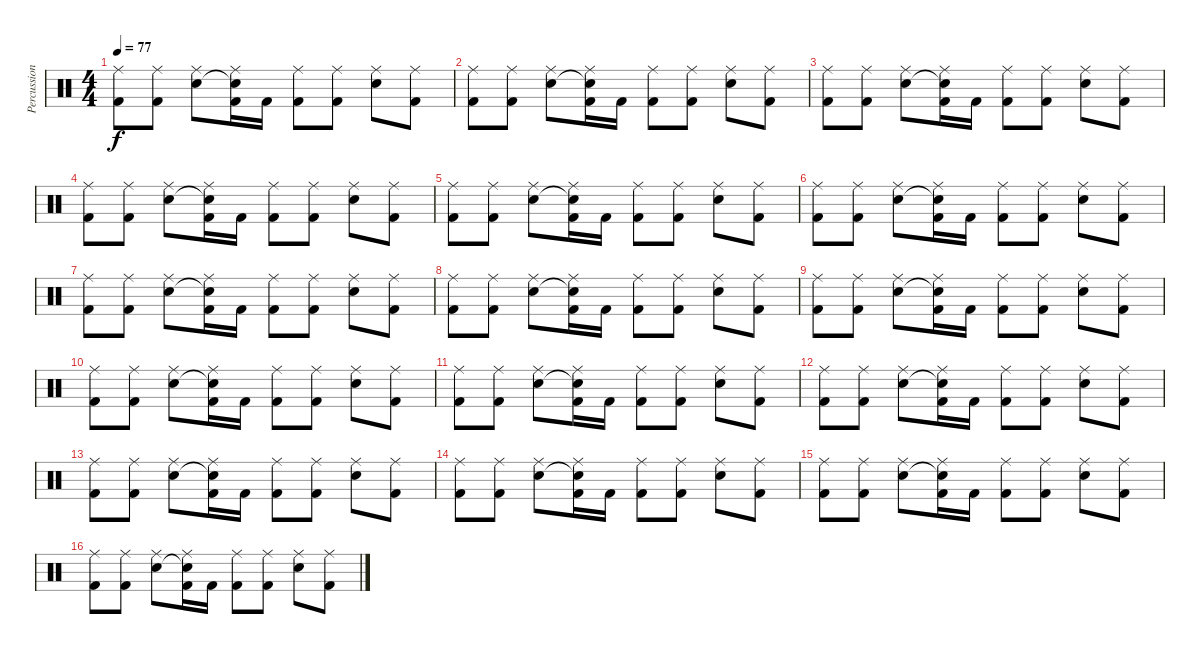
\track ("Percussion" "Percussion") {instrument percussion}
\staff {score}
\articulation defaults
\ts (4 4)
\tempo 77
\clef neutral
\ks c
("Ride (middle)" "Kick (hit) 2").8{dy f} ("Ride (middle)" "Kick (hit) 2").8 ("Ride (middle)" "Electric Snare (hit)").8 ("Ride (middle)" "Snare (hit)"{t} "Kick (hit) 2").16 "Kick (hit) 2".16 ("Ride (middle)" "Kick (hit) 2").8 ("Ride (middle)" "Kick (hit) 2").8 ("Ride (middle)" "Electric Snare (hit)").8 ("Ride (middle)" "Kick (hit) 2").8 |
("Ride (middle)" "Kick (hit) 2").8 ("Ride (middle)" "Kick (hit) 2").8 ("Ride (middle)" "Electric Snare (hit)").8 ("Ride (middle)" "Snare (hit)"{t} "Kick (hit) 2").16 "Kick (hit) 2".16 ("Ride (middle)" "Kick (hit) 2").8 ("Ride (middle)" "Kick (hit) 2").8 ("Ride (middle)" "Electric Snare (hit)").8 ("Ride (middle)" "Kick (hit) 2").8 |
("Ride (middle)" "Kick (hit) 2").8 ("Ride (middle)" "Kick (hit) 2").8 ("Ride (middle)" "Electric Snare (hit)").8 ("Ride (middle)" "Snare (hit)"{t} "Kick (hit) 2").16 "Kick (hit) 2".16 ("Ride (middle)" "Kick (hit) 2").8 ("Ride (middle)" "Kick (hit) 2").8 ("Ride (middle)" "Electric Snare (hit)").8 ("Ride (middle)" "Kick (hit) 2").8 |
("Ride (middle)" "Kick (hit) 2").8 ("Ride (middle)" "Kick (hit) 2").8 ("Ride (middle)" "Electric Snare (hit)").8 ("Ride (middle)" "Snare (hit)"{t} "Kick (hit) 2").16 "Kick (hit) 2".16 ("Ride (middle)" "Kick (hit) 2").8 ("Ride (middle)" "Kick (hit) 2").8 ("Ride (middle)" "Electric Snare (hit)").8 ("Ride (middle)" "Kick (hit) 2").8 |
("Ride (middle)" "Kick (hit) 2").8 ("Ride (middle)" "Kick (hit) 2").8 ("Ride (middle)" "Electric Snare (hit)").8 ("Ride (middle)" "Snare (hit)"{t} "Kick (hit) 2").16 "Kick (hit) 2".16 ("Ride (middle)" "Kick (hit) 2").8 ("Ride (middle)" "Kick (hit) 2").8 ("Ride (middle)" "Electric Snare (hit)").8 ("Ride (middle)" "Kick (hit) 2").8 |
("Ride (middle)" "Kick (hit) 2").8 ("Ride (middle)" "Kick (hit) 2").8 ("Ride (middle)" "Electric Snare (hit)").8 ("Ride (middle)" "Snare (hit)"{t} "Kick (hit) 2").16 "Kick (hit) 2".16 ("Ride (middle)" "Kick (hit) 2").8 ("Ride (middle)" "Kick (hit) 2").8 ("Ride (middle)" "Electric Snare (hit)").8 ("Ride (middle)" "Kick (hit) 2").8 |
("Ride (middle)" "Kick (hit) 2").8 ("Ride (middle)" "Kick (hit) 2").8 ("Ride (middle)" "Electric Snare (hit)").8 ("Ride (middle)" "Snare (hit)"{t} "Kick (hit) 2").16 "Kick (hit) 2".16 ("Ride (middle)" "Kick (hit) 2").8 ("Ride (middle)" "Kick (hit) 2").8 ("Ride (middle)" "Electric Snare (hit)").8 ("Ride (middle)" "Kick (hit) 2").8 |
("Ride (middle)" "Kick (hit) 2").8 ("Ride (middle)" "Kick (hit) 2").8 ("Ride (middle)" "Electric Snare (hit)").8 ("Ride (middle)" "Snare (hit)"{t} "Kick (hit) 2").16 "Kick (hit) 2".16 ("Ride (middle)" "Kick (hit) 2").8 ("Ride (middle)" "Kick (hit) 2").8 ("Ride (middle)" "Electric Snare (hit)").8 ("Ride (middle)" "Kick (hit) 2").8 |
("Ride (middle)" "Kick (hit) 2").8 ("Ride (middle)" "Kick (hit) 2").8 ("Ride (middle)" "Electric Snare (hit)").8 ("Ride (middle)" "Snare (hit)"{t} "Kick (hit) 2").16 "Kick (hit) 2".16 ("Ride (middle)" "Kick (hit) 2").8 ("Ride (middle)" "Kick (hit) 2").8 ("Ride (middle)" "Electric Snare (hit)").8 ("Ride (middle)" "Kick (hit) 2").8 |
("Ride (middle)" "Kick (hit) 2").8 ("Ride (middle)" "Kick (hit) 2").8 ("Ride (middle)" "Electric Snare (hit)").8 ("Ride (middle)" "Snare (hit)"{t} "Kick (hit) 2").16 "Kick (hit) 2".16 ("Ride (middle)" "Kick (hit) 2").8 ("Ride (middle)" "Kick (hit) 2").8 ("Ride (middle)" "Electric Snare (hit)").8 ("Ride (middle)" "Kick (hit) 2").8 |
("Ride (middle)" "Kick (hit) 2").8 ("Ride (middle)" "Kick (hit) 2").8 ("Ride (middle)" "Electric Snare (hit)").8 ("Ride (middle)" "Snare (hit)"{t} "Kick (hit) 2").16 "Kick (hit) 2".16 ("Ride (middle)" "Kick (hit) 2").8 ("Ride (middle)" "Kick (hit) 2").8 ("Ride (middle)" "Electric Snare (hit)").8 ("Ride (middle)" "Kick (hit) 2").8 |
("Ride (middle)" "Kick (hit) 2").8 ("Ride (middle)" "Kick (hit) 2").8 ("Ride (middle)" "Electric Snare (hit)").8 ("Ride (middle)" "Snare (hit)"{t} "Kick (hit) 2").16 "Kick (hit) 2".16 ("Ride (middle)" "Kick (hit) 2").8 ("Ride (middle)" "Kick (hit) 2").8 ("Ride (middle)" "Electric Snare (hit)").8 ("Ride (middle)" "Kick (hit) 2").8 |
("Ride (middle)" "Kick (hit) 2").8 ("Ride (middle)" "Kick (hit) 2").8 ("Ride (middle)" "Electric Snare (hit)").8 ("Ride (middle)" "Snare (hit)"{t} "Kick (hit) 2").16 "Kick (hit) 2".16 ("Ride (middle)" "Kick (hit) 2").8 ("Ride (middle)" "Kick (hit) 2").8 ("Ride (middle)" "Electric Snare (hit)").8 ("Ride (middle)" "Kick (hit) 2").8 |
("Ride (middle)" "Kick (hit) 2").8 ("Ride (middle)" "Kick (hit) 2").8 ("Ride (middle)" "Electric Snare (hit)").8 ("Ride (middle)" "Snare (hit)"{t} "Kick (hit) 2").16 "Kick (hit) 2".16 ("Ride (middle)" "Kick (hit) 2").8 ("Ride (middle)" "Kick (hit) 2").8 ("Ride (middle)" "Electric Snare (hit)").8 ("Ride (middle)" "Kick (hit) 2").8 |
("Ride (middle)" "Kick (hit) 2").8 ("Ride (middle)" "Kick (hit) 2").8 ("Ride (middle)" "Electric Snare (hit)").8 ("Ride (middle)" "Snare (hit)"{t} "Kick (hit) 2").16 "Kick (hit) 2".16 ("Ride (middle)" "Kick (hit) 2").8 ("Ride (middle)" "Kick (hit) 2").8 ("Ride (middle)" "Electric Snare (hit)").8 ("Ride (middle)" "Kick (hit) 2").8 |
("Ride (middle)" "Kick (hit) 2").8 ("Ride (middle)" "Kick (hit) 2").8 ("Ride (middle)" "Electric Snare (hit)").8 ("Ride (middle)" "Snare (hit)"{t} "Kick (hit) 2").16 "Kick (hit) 2".16 ("Ride (middle)" "Kick (hit) 2").8 ("Ride (middle)" "Kick (hit) 2").8 ("Ride (middle)" "Electric Snare (hit)").8 ("Ride (middle)" "Kick (hit) 2").8
